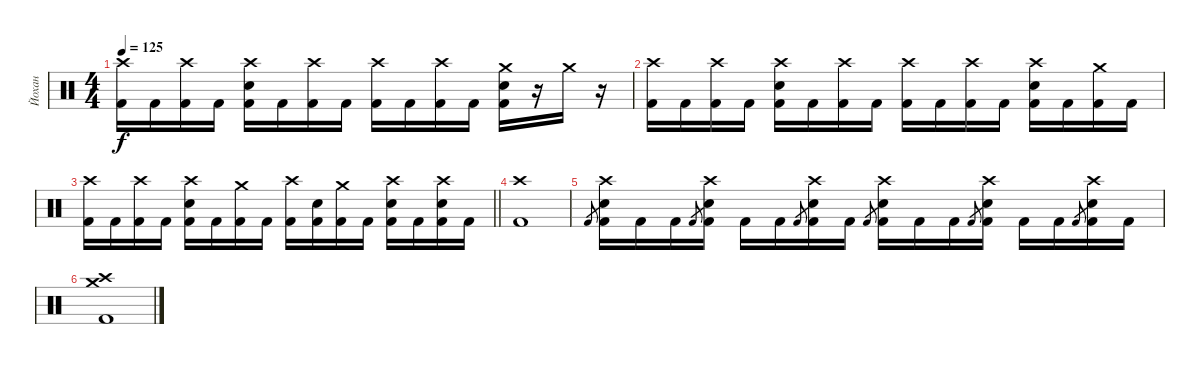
\track ("Йохан" "Йохан") {instrument percussion}
\staff {score}
\articulation defaults
\ts (4 4)
\tempo 125
\clef neutral
\ks c
("Crash high (hit)" "Kick (hit) 2").16{dy f} "Kick (hit) 2".16 ("Crash high (hit)" "Kick (hit) 2").16 "Kick (hit) 2".16 ("Crash high (hit)" "Snare (hit) 2" "Kick (hit) 2").16 "Kick (hit) 2".16 ("Crash high (hit)" "Kick (hit) 2").16 "Kick (hit) 2".16 ("Crash high (hit)" "Kick (hit) 2").16 "Kick (hit) 2".16 ("Crash high (hit)" "Kick (hit) 2").16 "Kick (hit) 2".16 ("Crash medium (hit)" "Snare (hit) 2" "Kick (hit) 2").16 r.16 "Crash medium (hit)".16 r.16 |
("Crash high (hit)" "Kick (hit) 2").16 "Kick (hit) 2".16 ("Crash high (hit)" "Kick (hit) 2").16 "Kick (hit) 2".16 ("Crash high (hit)" "Snare (hit) 2" "Kick (hit) 2").16 "Kick (hit) 2".16 ("Crash high (hit)" "Kick (hit) 2").16 "Kick (hit) 2".16 ("Crash high (hit)" "Kick (hit) 2").16 "Kick (hit) 2".16 ("Crash high (hit)" "Kick (hit) 2").16 "Kick (hit) 2".16 ("Crash high (hit)" "Snare (hit) 2" "Kick (hit) 2").16 "Kick (hit) 2".16 ("Crash medium (hit)" "Kick (hit) 2").16 "Kick (hit) 2".16 |
\barLineRight lightlight
("Crash high (hit)" "Kick (hit) 2").16 "Kick (hit) 2".16 ("Crash high (hit)" "Kick (hit) 2").16 "Kick (hit) 2".16 ("Crash high (hit)" "Snare (hit) 2" "Kick (hit) 2").16 "Kick (hit) 2".16 ("Crash medium (hit)" "Kick (hit) 2").16 "Kick (hit) 2".16 ("Crash high (hit)" "Kick (hit) 2").16 ("Snare (hit) 2" "Kick (hit) 2").16 ("Crash medium (hit)" "Kick (hit) 2").16 "Kick (hit) 2".16 ("Crash high (hit)" "Snare (hit) 2" "Kick (hit) 2").16 "Kick (hit) 2".16 ("Crash high (hit)" "Snare (hit) 2" "Kick (hit) 2").16 "Kick (hit) 2".16 |
("Crash high (hit)" "Kick (hit) 2").1 |
"Kick (hit) 2".8{gr} ("Crash high (hit)" "Snare (hit) 2" "Kick (hit) 2").16 "Kick (hit) 2".16 "Kick (hit) 2".16 "Kick (hit) 2".8{gr} ("Crash high (hit)" "Snare (hit) 2" "Kick (hit) 2").16 "Kick (hit) 2".16 "Kick (hit) 2".16 "Kick (hit) 2".8{gr} ("Crash high (hit)" "Snare (hit) 2" "Kick (hit) 2").16 "Kick (hit) 2".16 "Kick (hit) 2".8{gr} ("Crash high (hit)" "Snare (hit) 2" "Kick (hit) 2").16 "Kick (hit) 2".16 "Kick (hit) 2".16 "Kick (hit) 2".8{gr} ("Crash high (hit)" "Snare (hit) 2" "Kick (hit) 2").16 "Kick (hit) 2".16 "Kick (hit) 2".16 "Kick (hit) 2".8{gr} ("Crash high (hit)" "Snare (hit) 2" "Kick (hit) 2").16 "Kick (hit) 2".16 |
("Crash medium (hit)" "Crash high (hit)" "Kick (hit) 2").1
